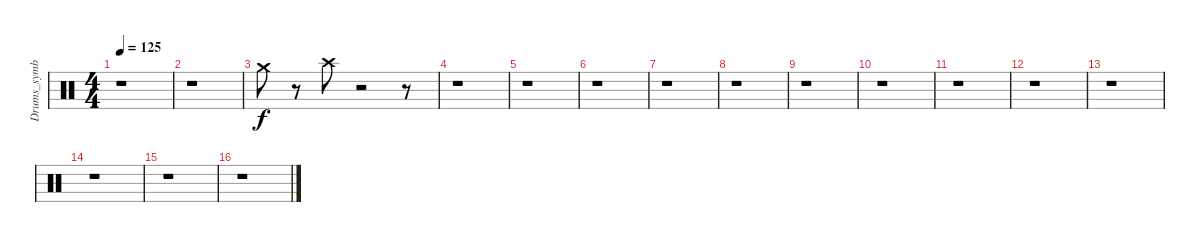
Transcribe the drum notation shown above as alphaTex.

\track ("Drums_symbal" "Drums_symb") {instrument percussion}
\staff {score}
\articulation defaults
\ts (4 4)
\tempo 125
\clef neutral
\ks c
r.1{dy f} |
r.1 |
"Crash medium (hit)".8 r.8 "Crash high (hit)".8 r.2 r.8 |
r.1 |
r.1 |
r.1 |
r.1 |
r.1 |
r.1 |
r.1 |
r.1 |
r.1 |
r.1 |
r.1 |
r.1 |
r.1
